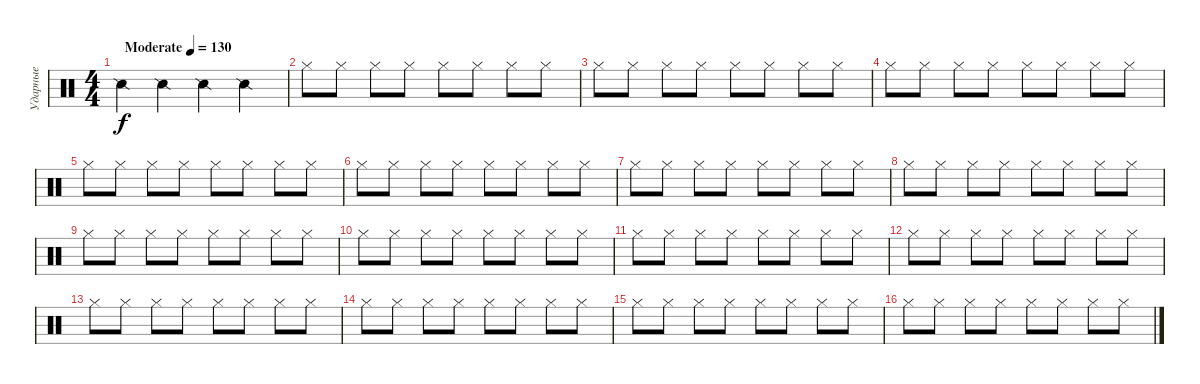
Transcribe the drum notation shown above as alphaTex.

\track ("Ударные" "Ударные") {instrument percussion}
\staff {score}
\articulation defaults
\ts (4 4)
\tempo (130 "Moderate")
\clef neutral
\ks c "Snare (side stick) 2".4{dy f} "Snare (side stick) 2".4 "Snare (side stick) 2".4 "Snare (side stick) 2".4
|
"Hi-Hat (closed)".8 "Hi-Hat (closed)".8 "Hi-Hat (closed)".8 "Hi-Hat (closed)".8 "Hi-Hat (closed)".8 "Hi-Hat (closed)".8 "Hi-Hat (closed)".8 "Hi-Hat (closed)".8 |
"Hi-Hat (closed)".8 "Hi-Hat (closed)".8 "Hi-Hat (closed)".8 "Hi-Hat (closed)".8 "Hi-Hat (closed)".8 "Hi-Hat (closed)".8 "Hi-Hat (closed)".8 "Hi-Hat (closed)".8 |
"Hi-Hat (closed)".8 "Hi-Hat (closed)".8 "Hi-Hat (closed)".8 "Hi-Hat (closed)".8 "Hi-Hat (closed)".8 "Hi-Hat (closed)".8 "Hi-Hat (closed)".8 "Hi-Hat (closed)".8 |
"Hi-Hat (closed)".8 "Hi-Hat (closed)".8 "Hi-Hat (closed)".8 "Hi-Hat (closed)".8 "Hi-Hat (closed)".8 "Hi-Hat (closed)".8 "Hi-Hat (closed)".8 "Hi-Hat (closed)".8 |
"Hi-Hat (closed)".8 "Hi-Hat (closed)".8 "Hi-Hat (closed)".8 "Hi-Hat (closed)".8 "Hi-Hat (closed)".8 "Hi-Hat (closed)".8 "Hi-Hat (closed)".8 "Hi-Hat (closed)".8 |
"Hi-Hat (closed)".8 "Hi-Hat (closed)".8 "Hi-Hat (closed)".8 "Hi-Hat (closed)".8 "Hi-Hat (closed)".8 "Hi-Hat (closed)".8 "Hi-Hat (closed)".8 "Hi-Hat (closed)".8 |
"Hi-Hat (closed)".8 "Hi-Hat (closed)".8 "Hi-Hat (closed)".8 "Hi-Hat (closed)".8 "Hi-Hat (closed)".8 "Hi-Hat (closed)".8 "Hi-Hat (closed)".8 "Hi-Hat (closed)".8 |
"Hi-Hat (closed)".8 "Hi-Hat (closed)".8 "Hi-Hat (closed)".8 "Hi-Hat (closed)".8 "Hi-Hat (closed)".8 "Hi-Hat (closed)".8 "Hi-Hat (closed)".8 "Hi-Hat (closed)".8 |
"Hi-Hat (closed)".8 "Hi-Hat (closed)".8 "Hi-Hat (closed)".8 "Hi-Hat (closed)".8 "Hi-Hat (closed)".8 "Hi-Hat (closed)".8 "Hi-Hat (closed)".8 "Hi-Hat (closed)".8 |
"Hi-Hat (closed)".8 "Hi-Hat (closed)".8 "Hi-Hat (closed)".8 "Hi-Hat (closed)".8 "Hi-Hat (closed)".8 "Hi-Hat (closed)".8 "Hi-Hat (closed)".8 "Hi-Hat (closed)".8 |
"Hi-Hat (closed)".8 "Hi-Hat (closed)".8 "Hi-Hat (closed)".8 "Hi-Hat (closed)".8 "Hi-Hat (closed)".8 "Hi-Hat (closed)".8 "Hi-Hat (closed)".8 "Hi-Hat (closed)".8 |
"Hi-Hat (closed)".8 "Hi-Hat (closed)".8 "Hi-Hat (closed)".8 "Hi-Hat (closed)".8 "Hi-Hat (closed)".8 "Hi-Hat (closed)".8 "Hi-Hat (closed)".8 "Hi-Hat (closed)".8 |
"Hi-Hat (closed)".8 "Hi-Hat (closed)".8 "Hi-Hat (closed)".8 "Hi-Hat (closed)".8 "Hi-Hat (closed)".8 "Hi-Hat (closed)".8 "Hi-Hat (closed)".8 "Hi-Hat (closed)".8 |
"Hi-Hat (closed)".8 "Hi-Hat (closed)".8 "Hi-Hat (closed)".8 "Hi-Hat (closed)".8 "Hi-Hat (closed)".8 "Hi-Hat (closed)".8 "Hi-Hat (closed)".8 "Hi-Hat (closed)".8 |
"Hi-Hat (closed)".8 "Hi-Hat (closed)".8 "Hi-Hat (closed)".8 "Hi-Hat (closed)".8 "Hi-Hat (closed)".8 "Hi-Hat (closed)".8 "Hi-Hat (closed)".8 "Hi-Hat (closed)".8
